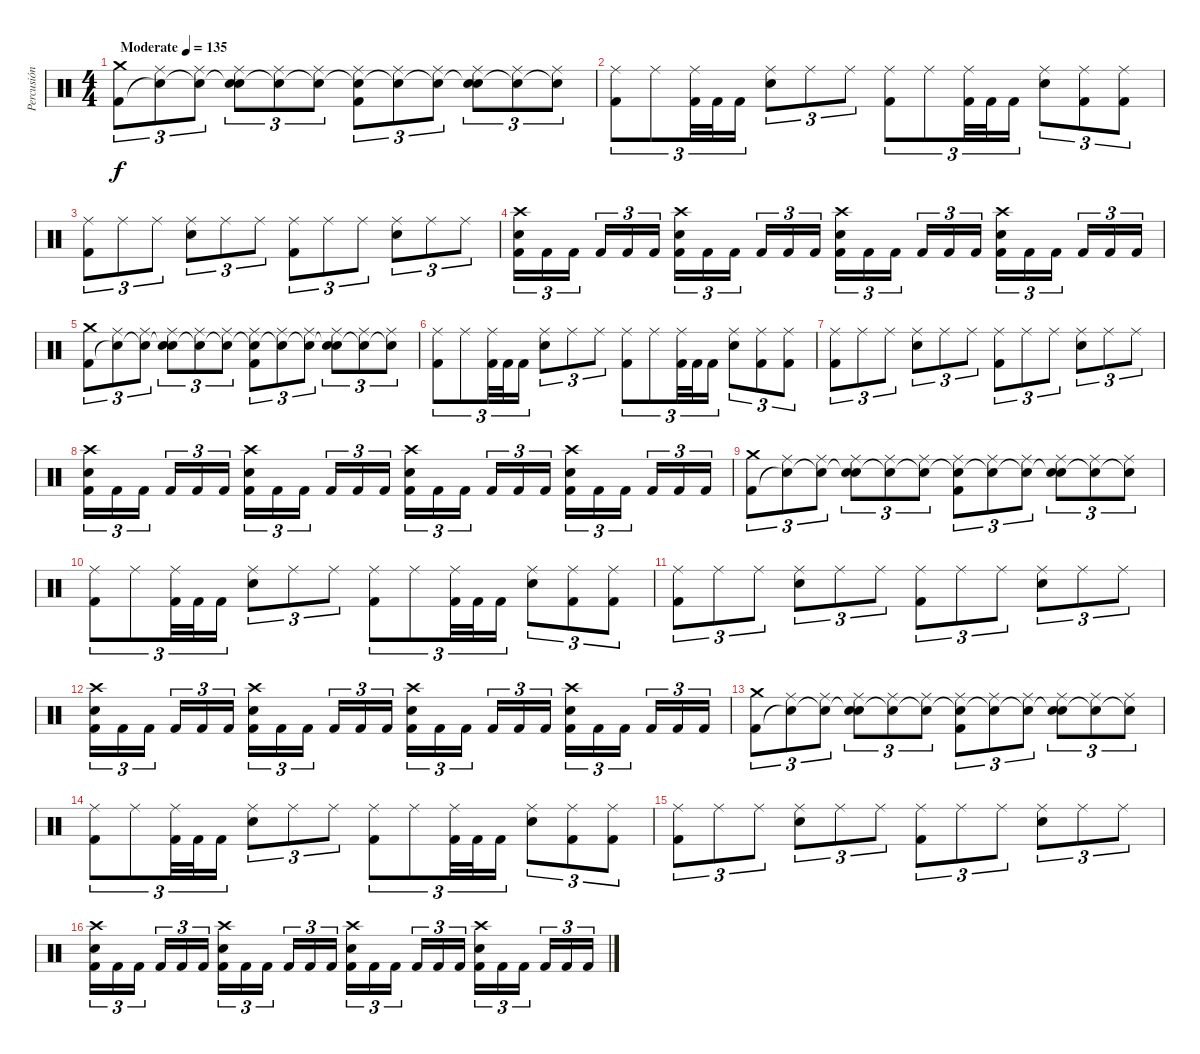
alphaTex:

\track ("Percusión" "Percusión") {instrument percussion}
\staff {score}
\articulation defaults
\ts (4 4)
\tempo (135 "Moderate")
\clef neutral
\ks c
("Crash medium (hit)" "Kick (hit) 2").8{tu (3 2) dy f} ("Ride (middle)" "Snare (hit)"{t}).8{tu (3 2)} ("Ride (middle)" "Snare (hit)"{t}).8{tu (3 2)} ("Ride (middle)" "Snare (hit)"{t} "Electric Snare (hit)").8{tu (3 2)} ("Ride (middle)" "Snare (hit)"{t}).8{tu (3 2)} ("Ride (middle)" "Snare (hit)"{t}).8{tu (3 2)} ("Ride (middle)" "Snare (hit)"{t} "Kick (hit) 2").8{tu (3 2)} ("Ride (middle)" "Snare (hit)"{t}).8{tu (3 2)} ("Ride (middle)" "Snare (hit)"{t}).8{tu (3 2)} ("Ride (middle)" "Snare (hit)"{t} "Electric Snare (hit)").8{tu (3 2)} ("Ride (middle)" "Snare (hit)"{t}).8{tu (3 2)} ("Ride (middle)" "Snare (hit)"{t}).8{tu (3 2)} |
("Ride (middle)" "Kick (hit) 2").8{tu (3 2)} "Ride (middle)".8{tu (3 2)} ("Ride (middle)" "Kick (hit) 2").32{tu (3 2)} "Kick (hit) 2".32{tu (3 2)} "Kick (hit) 2".16{tu (3 2)} ("Ride (middle)" "Electric Snare (hit)").8{tu (3 2)} "Ride (middle)".8{tu (3 2)} "Ride (middle)".8{tu (3 2)} ("Ride (middle)" "Kick (hit) 2").8{tu (3 2)} "Ride (middle)".8{tu (3 2)} ("Ride (middle)" "Kick (hit) 2").32{tu (3 2)} "Kick (hit) 2".32{tu (3 2)} "Kick (hit) 2".16{tu (3 2)} ("Ride (middle)" "Electric Snare (hit)").8{tu (3 2)} ("Ride (middle)" "Kick (hit) 2").8{tu (3 2)} ("Ride (middle)" "Kick (hit) 2").8{tu (3 2)} |
("Ride (middle)" "Kick (hit) 2").8{tu (3 2)} "Ride (middle)".8{tu (3 2)} "Ride (middle)".8{tu (3 2)} ("Ride (middle)" "Electric Snare (hit)").8{tu (3 2)} "Ride (middle)".8{tu (3 2)} "Ride (middle)".8{tu (3 2)} ("Ride (middle)" "Kick (hit) 2").8{tu (3 2)} "Ride (middle)".8{tu (3 2)} "Ride (middle)".8{tu (3 2)} ("Ride (middle)" "Electric Snare (hit)").8{tu (3 2)} "Ride (middle)".8{tu (3 2)} "Ride (middle)".8{tu (3 2)} |
("Crash high (hit)" "Electric Snare (hit)" "Kick (hit) 2").16{tu (3 2)} "Kick (hit) 2".16{tu (3 2)} "Kick (hit) 2".16{tu (3 2) beam splitsecondary} "Kick (hit) 2".16{tu (3 2)} "Kick (hit) 2".16{tu (3 2)} "Kick (hit) 2".16{tu (3 2)} ("Crash high (hit)" "Electric Snare (hit)" "Kick (hit) 2").16{tu (3 2)} "Kick (hit) 2".16{tu (3 2)} "Kick (hit) 2".16{tu (3 2) beam splitsecondary} "Kick (hit) 2".16{tu (3 2)} "Kick (hit) 2".16{tu (3 2)} "Kick (hit) 2".16{tu (3 2)} ("Crash high (hit)" "Electric Snare (hit)" "Kick (hit) 2").16{tu (3 2)} "Kick (hit) 2".16{tu (3 2)} "Kick (hit) 2".16{tu (3 2) beam splitsecondary} "Kick (hit) 2".16{tu (3 2)} "Kick (hit) 2".16{tu (3 2)} "Kick (hit) 2".16{tu (3 2)} ("Crash high (hit)" "Electric Snare (hit)" "Kick (hit) 2").16{tu (3 2)} "Kick (hit) 2".16{tu (3 2)} "Kick (hit) 2".16{tu (3 2) beam splitsecondary} "Kick (hit) 2".16{tu (3 2)} "Kick (hit) 2".16{tu (3 2)} "Kick (hit) 2".16{tu (3 2)} |
("Crash medium (hit)" "Kick (hit) 2").8{tu (3 2)} ("Ride (middle)" "Snare (hit)"{t}).8{tu (3 2)} ("Ride (middle)" "Snare (hit)"{t}).8{tu (3 2)} ("Ride (middle)" "Snare (hit)"{t} "Electric Snare (hit)").8{tu (3 2)} ("Ride (middle)" "Snare (hit)"{t}).8{tu (3 2)} ("Ride (middle)" "Snare (hit)"{t}).8{tu (3 2)} ("Ride (middle)" "Snare (hit)"{t} "Kick (hit) 2").8{tu (3 2)} ("Ride (middle)" "Snare (hit)"{t}).8{tu (3 2)} ("Ride (middle)" "Snare (hit)"{t}).8{tu (3 2)} ("Ride (middle)" "Snare (hit)"{t} "Electric Snare (hit)").8{tu (3 2)} ("Ride (middle)" "Snare (hit)"{t}).8{tu (3 2)} ("Ride (middle)" "Snare (hit)"{t}).8{tu (3 2)} |
("Ride (middle)" "Kick (hit) 2").8{tu (3 2)} "Ride (middle)".8{tu (3 2)} ("Ride (middle)" "Kick (hit) 2").32{tu (3 2)} "Kick (hit) 2".32{tu (3 2)} "Kick (hit) 2".16{tu (3 2)} ("Ride (middle)" "Electric Snare (hit)").8{tu (3 2)} "Ride (middle)".8{tu (3 2)} "Ride (middle)".8{tu (3 2)} ("Ride (middle)" "Kick (hit) 2").8{tu (3 2)} "Ride (middle)".8{tu (3 2)} ("Ride (middle)" "Kick (hit) 2").32{tu (3 2)} "Kick (hit) 2".32{tu (3 2)} "Kick (hit) 2".16{tu (3 2)} ("Ride (middle)" "Electric Snare (hit)").8{tu (3 2)} ("Ride (middle)" "Kick (hit) 2").8{tu (3 2)} ("Ride (middle)" "Kick (hit) 2").8{tu (3 2)} |
("Ride (middle)" "Kick (hit) 2").8{tu (3 2)} "Ride (middle)".8{tu (3 2)} "Ride (middle)".8{tu (3 2)} ("Ride (middle)" "Electric Snare (hit)").8{tu (3 2)} "Ride (middle)".8{tu (3 2)} "Ride (middle)".8{tu (3 2)} ("Ride (middle)" "Kick (hit) 2").8{tu (3 2)} "Ride (middle)".8{tu (3 2)} "Ride (middle)".8{tu (3 2)} ("Ride (middle)" "Electric Snare (hit)").8{tu (3 2)} "Ride (middle)".8{tu (3 2)} "Ride (middle)".8{tu (3 2)} |
("Crash high (hit)" "Electric Snare (hit)" "Kick (hit) 2").16{tu (3 2)} "Kick (hit) 2".16{tu (3 2)} "Kick (hit) 2".16{tu (3 2) beam splitsecondary} "Kick (hit) 2".16{tu (3 2)} "Kick (hit) 2".16{tu (3 2)} "Kick (hit) 2".16{tu (3 2)} ("Crash high (hit)" "Electric Snare (hit)" "Kick (hit) 2").16{tu (3 2)} "Kick (hit) 2".16{tu (3 2)} "Kick (hit) 2".16{tu (3 2) beam splitsecondary} "Kick (hit) 2".16{tu (3 2)} "Kick (hit) 2".16{tu (3 2)} "Kick (hit) 2".16{tu (3 2)} ("Crash high (hit)" "Electric Snare (hit)" "Kick (hit) 2").16{tu (3 2)} "Kick (hit) 2".16{tu (3 2)} "Kick (hit) 2".16{tu (3 2) beam splitsecondary} "Kick (hit) 2".16{tu (3 2)} "Kick (hit) 2".16{tu (3 2)} "Kick (hit) 2".16{tu (3 2)} ("Crash high (hit)" "Electric Snare (hit)" "Kick (hit) 2").16{tu (3 2)} "Kick (hit) 2".16{tu (3 2)} "Kick (hit) 2".16{tu (3 2) beam splitsecondary} "Kick (hit) 2".16{tu (3 2)} "Kick (hit) 2".16{tu (3 2)} "Kick (hit) 2".16{tu (3 2)} |
("Crash medium (hit)" "Kick (hit) 2").8{tu (3 2)} ("Ride (middle)" "Snare (hit)"{t}).8{tu (3 2)} ("Ride (middle)" "Snare (hit)"{t}).8{tu (3 2)} ("Ride (middle)" "Snare (hit)"{t} "Electric Snare (hit)").8{tu (3 2)} ("Ride (middle)" "Snare (hit)"{t}).8{tu (3 2)} ("Ride (middle)" "Snare (hit)"{t}).8{tu (3 2)} ("Ride (middle)" "Snare (hit)"{t} "Kick (hit) 2").8{tu (3 2)} ("Ride (middle)" "Snare (hit)"{t}).8{tu (3 2)} ("Ride (middle)" "Snare (hit)"{t}).8{tu (3 2)} ("Ride (middle)" "Snare (hit)"{t} "Electric Snare (hit)").8{tu (3 2)} ("Ride (middle)" "Snare (hit)"{t}).8{tu (3 2)} ("Ride (middle)" "Snare (hit)"{t}).8{tu (3 2)} |
("Ride (middle)" "Kick (hit) 2").8{tu (3 2)} "Ride (middle)".8{tu (3 2)} ("Ride (middle)" "Kick (hit) 2").32{tu (3 2)} "Kick (hit) 2".32{tu (3 2)} "Kick (hit) 2".16{tu (3 2)} ("Ride (middle)" "Electric Snare (hit)").8{tu (3 2)} "Ride (middle)".8{tu (3 2)} "Ride (middle)".8{tu (3 2)} ("Ride (middle)" "Kick (hit) 2").8{tu (3 2)} "Ride (middle)".8{tu (3 2)} ("Ride (middle)" "Kick (hit) 2").32{tu (3 2)} "Kick (hit) 2".32{tu (3 2)} "Kick (hit) 2".16{tu (3 2)} ("Ride (middle)" "Electric Snare (hit)").8{tu (3 2)} ("Ride (middle)" "Kick (hit) 2").8{tu (3 2)} ("Ride (middle)" "Kick (hit) 2").8{tu (3 2)} |
("Ride (middle)" "Kick (hit) 2").8{tu (3 2)} "Ride (middle)".8{tu (3 2)} "Ride (middle)".8{tu (3 2)} ("Ride (middle)" "Electric Snare (hit)").8{tu (3 2)} "Ride (middle)".8{tu (3 2)} "Ride (middle)".8{tu (3 2)} ("Ride (middle)" "Kick (hit) 2").8{tu (3 2)} "Ride (middle)".8{tu (3 2)} "Ride (middle)".8{tu (3 2)} ("Ride (middle)" "Electric Snare (hit)").8{tu (3 2)} "Ride (middle)".8{tu (3 2)} "Ride (middle)".8{tu (3 2)} |
("Crash high (hit)" "Electric Snare (hit)" "Kick (hit) 2").16{tu (3 2)} "Kick (hit) 2".16{tu (3 2)} "Kick (hit) 2".16{tu (3 2) beam splitsecondary} "Kick (hit) 2".16{tu (3 2)} "Kick (hit) 2".16{tu (3 2)} "Kick (hit) 2".16{tu (3 2)} ("Crash high (hit)" "Electric Snare (hit)" "Kick (hit) 2").16{tu (3 2)} "Kick (hit) 2".16{tu (3 2)} "Kick (hit) 2".16{tu (3 2) beam splitsecondary} "Kick (hit) 2".16{tu (3 2)} "Kick (hit) 2".16{tu (3 2)} "Kick (hit) 2".16{tu (3 2)} ("Crash high (hit)" "Electric Snare (hit)" "Kick (hit) 2").16{tu (3 2)} "Kick (hit) 2".16{tu (3 2)} "Kick (hit) 2".16{tu (3 2) beam splitsecondary} "Kick (hit) 2".16{tu (3 2)} "Kick (hit) 2".16{tu (3 2)} "Kick (hit) 2".16{tu (3 2)} ("Crash high (hit)" "Electric Snare (hit)" "Kick (hit) 2").16{tu (3 2)} "Kick (hit) 2".16{tu (3 2)} "Kick (hit) 2".16{tu (3 2) beam splitsecondary} "Kick (hit) 2".16{tu (3 2)} "Kick (hit) 2".16{tu (3 2)} "Kick (hit) 2".16{tu (3 2)} |
("Crash medium (hit)" "Kick (hit) 2").8{tu (3 2)} ("Ride (middle)" "Snare (hit)"{t}).8{tu (3 2)} ("Ride (middle)" "Snare (hit)"{t}).8{tu (3 2)} ("Ride (middle)" "Snare (hit)"{t} "Electric Snare (hit)").8{tu (3 2)} ("Ride (middle)" "Snare (hit)"{t}).8{tu (3 2)} ("Ride (middle)" "Snare (hit)"{t}).8{tu (3 2)} ("Ride (middle)" "Snare (hit)"{t} "Kick (hit) 2").8{tu (3 2)} ("Ride (middle)" "Snare (hit)"{t}).8{tu (3 2)} ("Ride (middle)" "Snare (hit)"{t}).8{tu (3 2)} ("Ride (middle)" "Snare (hit)"{t} "Electric Snare (hit)").8{tu (3 2)} ("Ride (middle)" "Snare (hit)"{t}).8{tu (3 2)} ("Ride (middle)" "Snare (hit)"{t}).8{tu (3 2)} |
("Ride (middle)" "Kick (hit) 2").8{tu (3 2)} "Ride (middle)".8{tu (3 2)} ("Ride (middle)" "Kick (hit) 2").32{tu (3 2)} "Kick (hit) 2".32{tu (3 2)} "Kick (hit) 2".16{tu (3 2)} ("Ride (middle)" "Electric Snare (hit)").8{tu (3 2)} "Ride (middle)".8{tu (3 2)} "Ride (middle)".8{tu (3 2)} ("Ride (middle)" "Kick (hit) 2").8{tu (3 2)} "Ride (middle)".8{tu (3 2)} ("Ride (middle)" "Kick (hit) 2").32{tu (3 2)} "Kick (hit) 2".32{tu (3 2)} "Kick (hit) 2".16{tu (3 2)} ("Ride (middle)" "Electric Snare (hit)").8{tu (3 2)} ("Ride (middle)" "Kick (hit) 2").8{tu (3 2)} ("Ride (middle)" "Kick (hit) 2").8{tu (3 2)} |
("Ride (middle)" "Kick (hit) 2").8{tu (3 2)} "Ride (middle)".8{tu (3 2)} "Ride (middle)".8{tu (3 2)} ("Ride (middle)" "Electric Snare (hit)").8{tu (3 2)} "Ride (middle)".8{tu (3 2)} "Ride (middle)".8{tu (3 2)} ("Ride (middle)" "Kick (hit) 2").8{tu (3 2)} "Ride (middle)".8{tu (3 2)} "Ride (middle)".8{tu (3 2)} ("Ride (middle)" "Electric Snare (hit)").8{tu (3 2)} "Ride (middle)".8{tu (3 2)} "Ride (middle)".8{tu (3 2)} |
("Crash high (hit)" "Electric Snare (hit)" "Kick (hit) 2").16{tu (3 2)} "Kick (hit) 2".16{tu (3 2)} "Kick (hit) 2".16{tu (3 2) beam splitsecondary} "Kick (hit) 2".16{tu (3 2)} "Kick (hit) 2".16{tu (3 2)} "Kick (hit) 2".16{tu (3 2)} ("Crash high (hit)" "Electric Snare (hit)" "Kick (hit) 2").16{tu (3 2)} "Kick (hit) 2".16{tu (3 2)} "Kick (hit) 2".16{tu (3 2) beam splitsecondary} "Kick (hit) 2".16{tu (3 2)} "Kick (hit) 2".16{tu (3 2)} "Kick (hit) 2".16{tu (3 2)} ("Crash high (hit)" "Electric Snare (hit)" "Kick (hit) 2").16{tu (3 2)} "Kick (hit) 2".16{tu (3 2)} "Kick (hit) 2".16{tu (3 2) beam splitsecondary} "Kick (hit) 2".16{tu (3 2)} "Kick (hit) 2".16{tu (3 2)} "Kick (hit) 2".16{tu (3 2)} ("Crash high (hit)" "Electric Snare (hit)" "Kick (hit) 2").16{tu (3 2)} "Kick (hit) 2".16{tu (3 2)} "Kick (hit) 2".16{tu (3 2) beam splitsecondary} "Kick (hit) 2".16{tu (3 2)} "Kick (hit) 2".16{tu (3 2)} "Kick (hit) 2".16{tu (3 2)}
